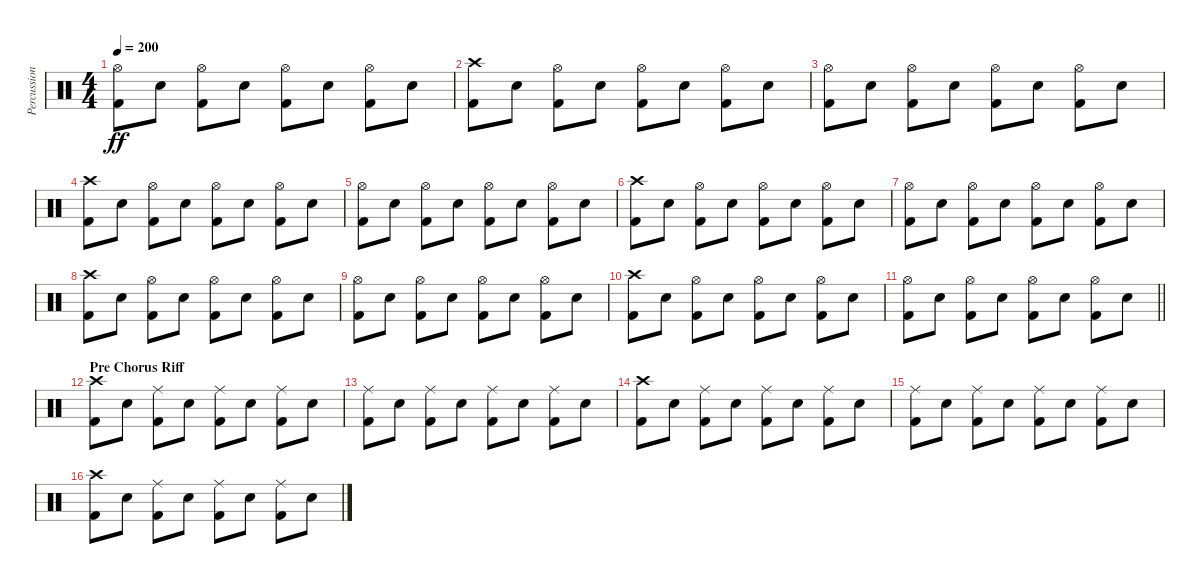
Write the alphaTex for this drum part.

\track ("Percussion" "Percussion") {instrument percussion}
\staff {score}
\articulation defaults
\ts (4 4)
\tempo 200
\clef neutral
\ks c
("Hi-Hat (open)" "Kick (hit) 2").8{dy ff} "Snare (hit) 2".8 ("Hi-Hat (open)" "Kick (hit) 2").8 "Snare (hit) 2".8 ("Hi-Hat (open)" "Kick (hit) 2").8 "Snare (hit) 2".8 ("Hi-Hat (open)" "Kick (hit) 2").8 "Snare (hit) 2".8 |
("Crash high (hit)" "Kick (hit) 2").8 "Snare (hit) 2".8 ("Hi-Hat (open)" "Kick (hit) 2").8 "Snare (hit) 2".8 ("Hi-Hat (open)" "Kick (hit) 2").8 "Snare (hit) 2".8 ("Hi-Hat (open)" "Kick (hit) 2").8 "Snare (hit) 2".8 |
("Hi-Hat (open)" "Kick (hit) 2").8 "Snare (hit) 2".8 ("Hi-Hat (open)" "Kick (hit) 2").8 "Snare (hit) 2".8 ("Hi-Hat (open)" "Kick (hit) 2").8 "Snare (hit) 2".8 ("Hi-Hat (open)" "Kick (hit) 2").8 "Snare (hit) 2".8 |
("Crash high (hit)" "Kick (hit) 2").8 "Snare (hit) 2".8 ("Hi-Hat (open)" "Kick (hit) 2").8 "Snare (hit) 2".8 ("Hi-Hat (open)" "Kick (hit) 2").8 "Snare (hit) 2".8 ("Hi-Hat (open)" "Kick (hit) 2").8 "Snare (hit) 2".8 |
("Hi-Hat (open)" "Kick (hit) 2").8 "Snare (hit) 2".8 ("Hi-Hat (open)" "Kick (hit) 2").8 "Snare (hit) 2".8 ("Hi-Hat (open)" "Kick (hit) 2").8 "Snare (hit) 2".8 ("Hi-Hat (open)" "Kick (hit) 2").8 "Snare (hit) 2".8 |
("Crash high (hit)" "Kick (hit) 2").8 "Snare (hit) 2".8 ("Hi-Hat (open)" "Kick (hit) 2").8 "Snare (hit) 2".8 ("Hi-Hat (open)" "Kick (hit) 2").8 "Snare (hit) 2".8 ("Hi-Hat (open)" "Kick (hit) 2").8 "Snare (hit) 2".8 |
("Hi-Hat (open)" "Kick (hit) 2").8 "Snare (hit) 2".8 ("Hi-Hat (open)" "Kick (hit) 2").8 "Snare (hit) 2".8 ("Hi-Hat (open)" "Kick (hit) 2").8 "Snare (hit) 2".8 ("Hi-Hat (open)" "Kick (hit) 2").8 "Snare (hit) 2".8 |
("Crash high (hit)" "Kick (hit) 2").8 "Snare (hit) 2".8 ("Hi-Hat (open)" "Kick (hit) 2").8 "Snare (hit) 2".8 ("Hi-Hat (open)" "Kick (hit) 2").8 "Snare (hit) 2".8 ("Hi-Hat (open)" "Kick (hit) 2").8 "Snare (hit) 2".8 |
("Hi-Hat (open)" "Kick (hit) 2").8 "Snare (hit) 2".8 ("Hi-Hat (open)" "Kick (hit) 2").8 "Snare (hit) 2".8 ("Hi-Hat (open)" "Kick (hit) 2").8 "Snare (hit) 2".8 ("Hi-Hat (open)" "Kick (hit) 2").8 "Snare (hit) 2".8 |
("Crash high (hit)" "Kick (hit) 2").8 "Snare (hit) 2".8 ("Hi-Hat (open)" "Kick (hit) 2").8 "Snare (hit) 2".8 ("Hi-Hat (open)" "Kick (hit) 2").8 "Snare (hit) 2".8 ("Hi-Hat (open)" "Kick (hit) 2").8 "Snare (hit) 2".8 |
\barLineRight lightlight
("Hi-Hat (open)" "Kick (hit) 2").8 "Snare (hit) 2".8 ("Hi-Hat (open)" "Kick (hit) 2").8 "Snare (hit) 2".8 ("Hi-Hat (open)" "Kick (hit) 2").8 "Snare (hit) 2".8 ("Hi-Hat (open)" "Kick (hit) 2").8 "Snare (hit) 2".8 |
\section ("" "Pre Chorus Riff")
("Crash high (hit)" "Kick (hit) 2").8 "Snare (hit) 2".8 ("Ride (middle)" "Kick (hit) 2").8 "Snare (hit) 2".8 ("Ride (middle)" "Kick (hit) 2").8 "Snare (hit) 2".8 ("Ride (middle)" "Kick (hit) 2").8 "Snare (hit) 2".8 |
("Ride (middle)" "Kick (hit) 2").8 "Snare (hit) 2".8 ("Ride (middle)" "Kick (hit) 2").8 "Snare (hit) 2".8 ("Ride (middle)" "Kick (hit) 2").8 "Snare (hit) 2".8 ("Ride (middle)" "Kick (hit) 2").8 "Snare (hit) 2".8 |
("Crash high (hit)" "Kick (hit) 2").8 "Snare (hit) 2".8 ("Ride (middle)" "Kick (hit) 2").8 "Snare (hit) 2".8 ("Ride (middle)" "Kick (hit) 2").8 "Snare (hit) 2".8 ("Ride (middle)" "Kick (hit) 2").8 "Snare (hit) 2".8 |
("Ride (middle)" "Kick (hit) 2").8 "Snare (hit) 2".8 ("Ride (middle)" "Kick (hit) 2").8 "Snare (hit) 2".8 ("Ride (middle)" "Kick (hit) 2").8 "Snare (hit) 2".8 ("Ride (middle)" "Kick (hit) 2").8 "Snare (hit) 2".8 |
("Crash high (hit)" "Kick (hit) 2").8 "Snare (hit) 2".8 ("Ride (middle)" "Kick (hit) 2").8 "Snare (hit) 2".8 ("Ride (middle)" "Kick (hit) 2").8 "Snare (hit) 2".8 ("Ride (middle)" "Kick (hit) 2").8 "Snare (hit) 2".8
